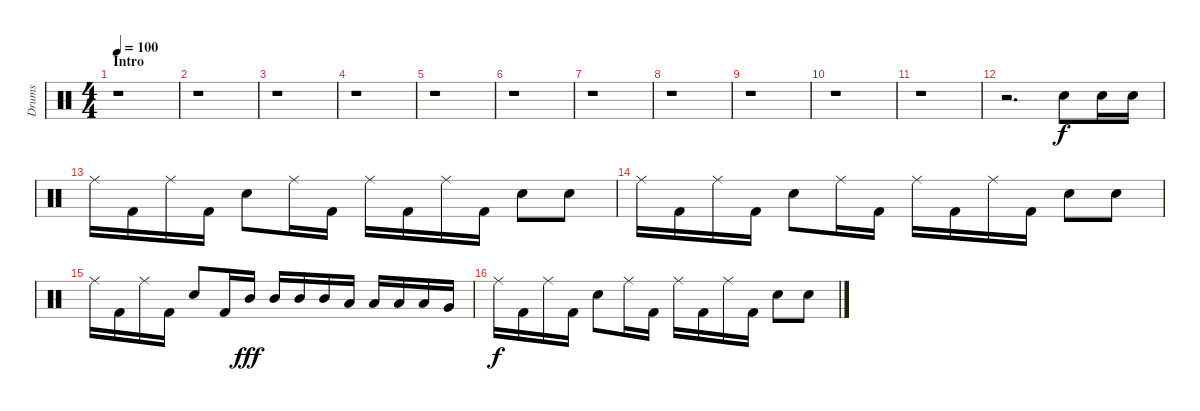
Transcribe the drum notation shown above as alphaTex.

\track ("Drums" "Drums") {instrument percussion}
\staff {score}
\articulation defaults
\ts (4 4)
\section ("" "Intro")
\tempo 100
\clef neutral
\ks c
r.1{dy f} |
r.1 |
r.1 |
r.1 |
r.1 |
r.1 |
r.1 |
r.1 |
r.1 |
r.1 |
r.1 |
r.2{d} "Snare (hit) 2".8 "Snare (hit) 2".16 "Snare (hit) 2".16 |
"Ride (middle)".16 "Kick (hit) 2".16 "Ride (middle)".16 "Kick (hit) 2".16 "Snare (hit) 2".8 "Ride (middle)".16 "Kick (hit) 2".16 "Ride (middle)".16 "Kick (hit) 2".16 "Ride (middle)".16 "Kick (hit) 2".16 "Snare (hit) 2".8 "Snare (hit) 2".8 |
"Ride (middle)".16 "Kick (hit) 2".16 "Ride (middle)".16 "Kick (hit) 2".16 "Snare (hit) 2".8 "Ride (middle)".16 "Kick (hit) 2".16 "Ride (middle)".16 "Kick (hit) 2".16 "Ride (middle)".16 "Kick (hit) 2".16 "Snare (hit) 2".8 "Snare (hit) 2".8 |
"Ride (middle)".16 "Kick (hit) 2".16 "Ride (middle)".16 "Kick (hit) 2".16 "Snare (hit) 2".8 "Kick (hit) 2".16 "Mid Tom (hit)".16{dy fff} "Mid Tom (hit)".16 "Mid Tom (hit)".16 "Mid Tom (hit)".16 "Low Tom (hit)".16 "Low Tom (hit)".16 "Low Tom (hit)".16 "Low Tom (hit)".16 "Very Low Tom (hit)".16 |
"Ride (middle)".16{dy f} "Kick (hit) 2".16 "Ride (middle)".16 "Kick (hit) 2".16 "Snare (hit) 2".8 "Ride (middle)".16 "Kick (hit) 2".16 "Ride (middle)".16 "Kick (hit) 2".16 "Ride (middle)".16 "Kick (hit) 2".16 "Snare (hit) 2".8 "Snare (hit) 2".8
